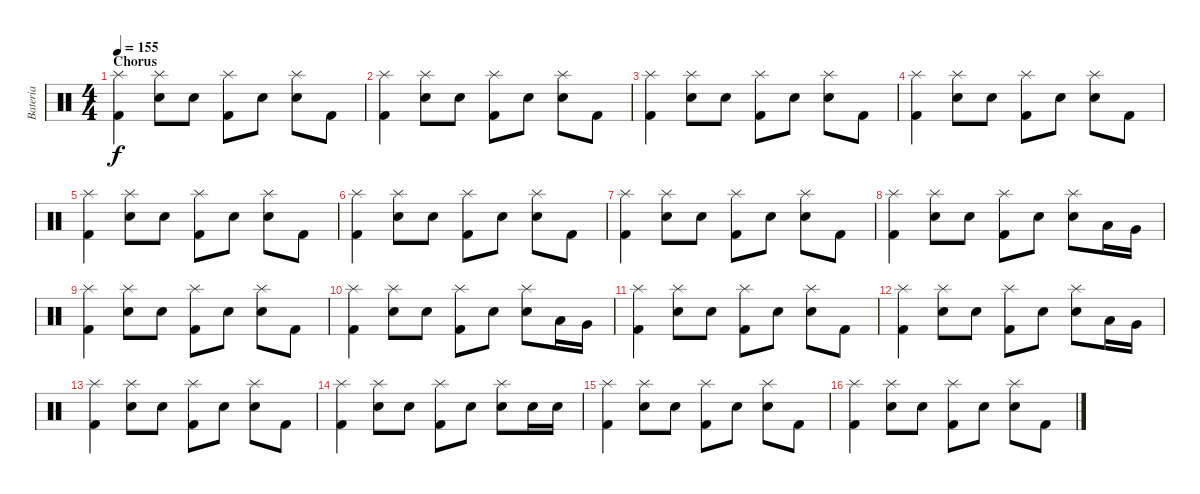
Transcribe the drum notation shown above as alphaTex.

\track ("Bateria" "Bateria") {instrument percussion}
\staff {score}
\articulation defaults
\ts (4 4)
\section ("" "Chorus")
\tempo 155
\clef neutral
\ks c
("Splash (hit)" "Kick (hit) 2").4{dy f} ("Splash (hit)" "Electric Snare (hit)").8 "Electric Snare (hit)".8 ("Splash (hit)" "Kick (hit) 2").8 "Electric Snare (hit)".8 ("Splash (hit)" "Electric Snare (hit)").8 "Kick (hit) 2".8 |
("Splash (hit)" "Kick (hit) 2").4 ("Splash (hit)" "Electric Snare (hit)").8 "Electric Snare (hit)".8 ("Splash (hit)" "Kick (hit) 2").8 "Electric Snare (hit)".8 ("Splash (hit)" "Electric Snare (hit)").8 "Kick (hit) 2".8 |
("Splash (hit)" "Kick (hit) 2").4 ("Splash (hit)" "Electric Snare (hit)").8 "Electric Snare (hit)".8 ("Splash (hit)" "Kick (hit) 2").8 "Electric Snare (hit)".8 ("Splash (hit)" "Electric Snare (hit)").8 "Kick (hit) 2".8 |
("Splash (hit)" "Kick (hit) 2").4 ("Splash (hit)" "Electric Snare (hit)").8 "Electric Snare (hit)".8 ("Splash (hit)" "Kick (hit) 2").8 "Electric Snare (hit)".8 ("Splash (hit)" "Electric Snare (hit)").8 "Kick (hit) 2".8 |
("Splash (hit)" "Kick (hit) 2").4 ("Splash (hit)" "Electric Snare (hit)").8 "Electric Snare (hit)".8 ("Splash (hit)" "Kick (hit) 2").8 "Electric Snare (hit)".8 ("Splash (hit)" "Electric Snare (hit)").8 "Kick (hit) 2".8 |
("Splash (hit)" "Kick (hit) 2").4 ("Splash (hit)" "Electric Snare (hit)").8 "Electric Snare (hit)".8 ("Splash (hit)" "Kick (hit) 2").8 "Electric Snare (hit)".8 ("Splash (hit)" "Electric Snare (hit)").8 "Kick (hit) 2".8 |
("Splash (hit)" "Kick (hit) 2").4 ("Splash (hit)" "Electric Snare (hit)").8 "Electric Snare (hit)".8 ("Splash (hit)" "Kick (hit) 2").8 "Electric Snare (hit)".8 ("Splash (hit)" "Electric Snare (hit)").8 "Kick (hit) 2".8 |
("Splash (hit)" "Kick (hit) 2").4 ("Splash (hit)" "Electric Snare (hit)").8 "Electric Snare (hit)".8 ("Splash (hit)" "Kick (hit) 2").8 "Electric Snare (hit)".8 ("Splash (hit)" "Electric Snare (hit)").8 "Low Tom (hit)".16 "Very Low Tom (hit)".16 |
("Splash (hit)" "Kick (hit) 2").4 ("Splash (hit)" "Electric Snare (hit)").8 "Electric Snare (hit)".8 ("Splash (hit)" "Kick (hit) 2").8 "Electric Snare (hit)".8 ("Splash (hit)" "Electric Snare (hit)").8 "Kick (hit) 2".8 |
("Splash (hit)" "Kick (hit) 2").4 ("Splash (hit)" "Electric Snare (hit)").8 "Electric Snare (hit)".8 ("Splash (hit)" "Kick (hit) 2").8 "Electric Snare (hit)".8 ("Splash (hit)" "Electric Snare (hit)").8 "Low Tom (hit)".16 "Very Low Tom (hit)".16 |
("Splash (hit)" "Kick (hit) 2").4 ("Splash (hit)" "Electric Snare (hit)").8 "Electric Snare (hit)".8 ("Splash (hit)" "Kick (hit) 2").8 "Electric Snare (hit)".8 ("Splash (hit)" "Electric Snare (hit)").8 "Kick (hit) 2".8 |
("Splash (hit)" "Kick (hit) 2").4 ("Splash (hit)" "Electric Snare (hit)").8 "Electric Snare (hit)".8 ("Splash (hit)" "Kick (hit) 2").8 "Electric Snare (hit)".8 ("Splash (hit)" "Electric Snare (hit)").8 "Low Tom (hit)".16 "Very Low Tom (hit)".16 |
("Splash (hit)" "Kick (hit) 2").4 ("Splash (hit)" "Electric Snare (hit)").8 "Electric Snare (hit)".8 ("Splash (hit)" "Kick (hit) 2").8 "Electric Snare (hit)".8 ("Splash (hit)" "Electric Snare (hit)").8 "Kick (hit) 2".8 |
("Splash (hit)" "Kick (hit) 2").4 ("Splash (hit)" "Electric Snare (hit)").8 "Electric Snare (hit)".8 ("Splash (hit)" "Kick (hit) 2").8 "Electric Snare (hit)".8 ("Splash (hit)" "Electric Snare (hit)").8 "Electric Snare (hit)".16 "Electric Snare (hit)".16 |
("Splash (hit)" "Kick (hit) 2").4 ("Splash (hit)" "Electric Snare (hit)").8 "Electric Snare (hit)".8 ("Splash (hit)" "Kick (hit) 2").8 "Electric Snare (hit)".8 ("Splash (hit)" "Electric Snare (hit)").8 "Kick (hit) 2".8 |
("Splash (hit)" "Kick (hit) 2").4 ("Splash (hit)" "Electric Snare (hit)").8 "Electric Snare (hit)".8 ("Splash (hit)" "Kick (hit) 2").8 "Electric Snare (hit)".8 ("Splash (hit)" "Electric Snare (hit)").8 "Kick (hit) 2".8
